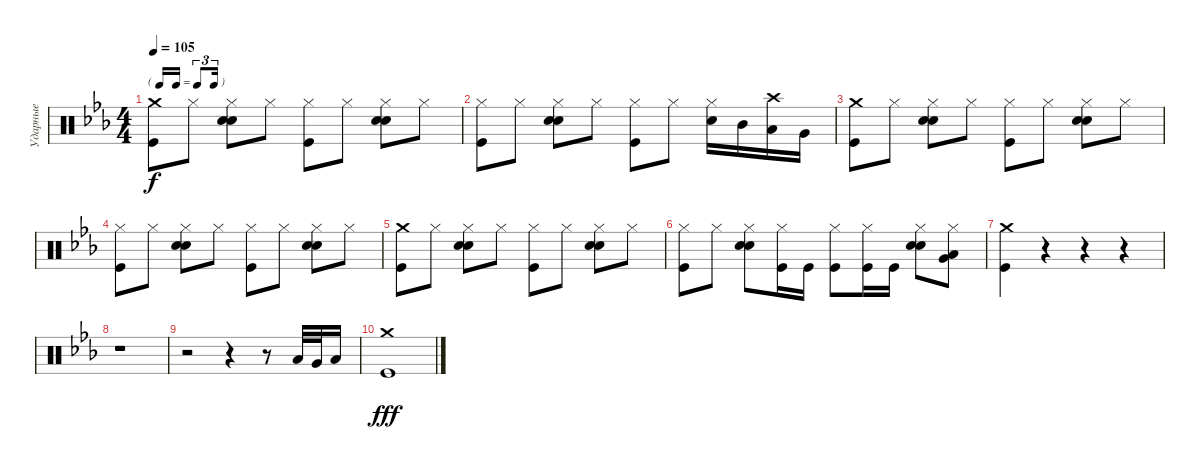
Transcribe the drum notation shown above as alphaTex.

\track ("Ударные" "Ударные") {instrument percussion}
\staff {score}
\articulation defaults
\ts (4 4)
\tf triplet16th
\tempo 105
\clef neutral
\ks cminor
("Kick (hit)" "Crash medium (hit)").8{dy f} "Hi-Hat (closed)".8 ("Snare (hit) 2" "Hi-Hat (closed)" "Hand Clap (hit)").8 "Hi-Hat (closed)".8 ("Hi-Hat (closed)" "Kick (hit)").8 "Hi-Hat (closed)".8 ("Snare (hit) 2" "Hi-Hat (closed)" "Hand Clap (hit)").8 "Hi-Hat (closed)".8 |
("Kick (hit)" "Hi-Hat (closed)").8 "Hi-Hat (closed)".8 ("Snare (hit) 2" "Hi-Hat (closed)" "Hand Clap (hit)").8 "Hi-Hat (closed)".8 ("Kick (hit)" "Hi-Hat (closed)").8 "Hi-Hat (closed)".8 ("Snare (hit) 2" "Hi-Hat (closed)").16 "Mid Tom (hit)".16 ("Low Tom (hit)" "Crash high (hit)").16 "Very Low Tom (hit)".16 |
("Kick (hit)" "Crash medium (hit)").8 "Hi-Hat (closed)".8 ("Snare (hit) 2" "Hi-Hat (closed)" "Hand Clap (hit)").8 "Hi-Hat (closed)".8 ("Hi-Hat (closed)" "Kick (hit)").8 "Hi-Hat (closed)".8 ("Snare (hit) 2" "Hi-Hat (closed)" "Hand Clap (hit)").8 "Hi-Hat (closed)".8 |
("Kick (hit)" "Hi-Hat (closed)").8 "Hi-Hat (closed)".8 ("Snare (hit) 2" "Hi-Hat (closed)" "Hand Clap (hit)").8 "Hi-Hat (closed)".8 ("Kick (hit)" "Hi-Hat (closed)").8 "Hi-Hat (closed)".8 ("Snare (hit) 2" "Hi-Hat (closed)" "Hand Clap (hit)").8 "Hi-Hat (closed)".8 |
("Kick (hit)" "Crash medium (hit)").8 "Hi-Hat (closed)".8 ("Snare (hit) 2" "Hi-Hat (closed)" "Hand Clap (hit)").8 "Hi-Hat (closed)".8 ("Hi-Hat (closed)" "Kick (hit)").8 "Hi-Hat (closed)".8 ("Snare (hit) 2" "Hi-Hat (closed)" "Hand Clap (hit)").8 "Hi-Hat (closed)".8 |
("Kick (hit)" "Hi-Hat (closed)").8 "Hi-Hat (closed)".8 ("Snare (hit) 2" "Hi-Hat (closed)" "Hand Clap (hit)").8 ("Hi-Hat (closed)" "Kick (hit)").16 "Kick (hit)".16 ("Kick (hit)" "Hi-Hat (closed)").8 ("Hi-Hat (closed)" "Kick (hit)").16 "Kick (hit)".16 ("Snare (hit) 2" "Hi-Hat (closed)" "Hand Clap (hit)").8 ("Low Tom (hit)" "Very Low Tom (hit)" "Hi-Hat (closed)").8 |
("Kick (hit)" "Crash medium (hit)").4 r.4 r.4 r.4 |
r.1 |
r.2 r.4 r.8 "Low Tom (hit)".32 "Very Low Tom (hit)".32 "Low Floor Tom (hit)".16 |
("Kick (hit)" "Crash medium (hit)").1{dy fff}
